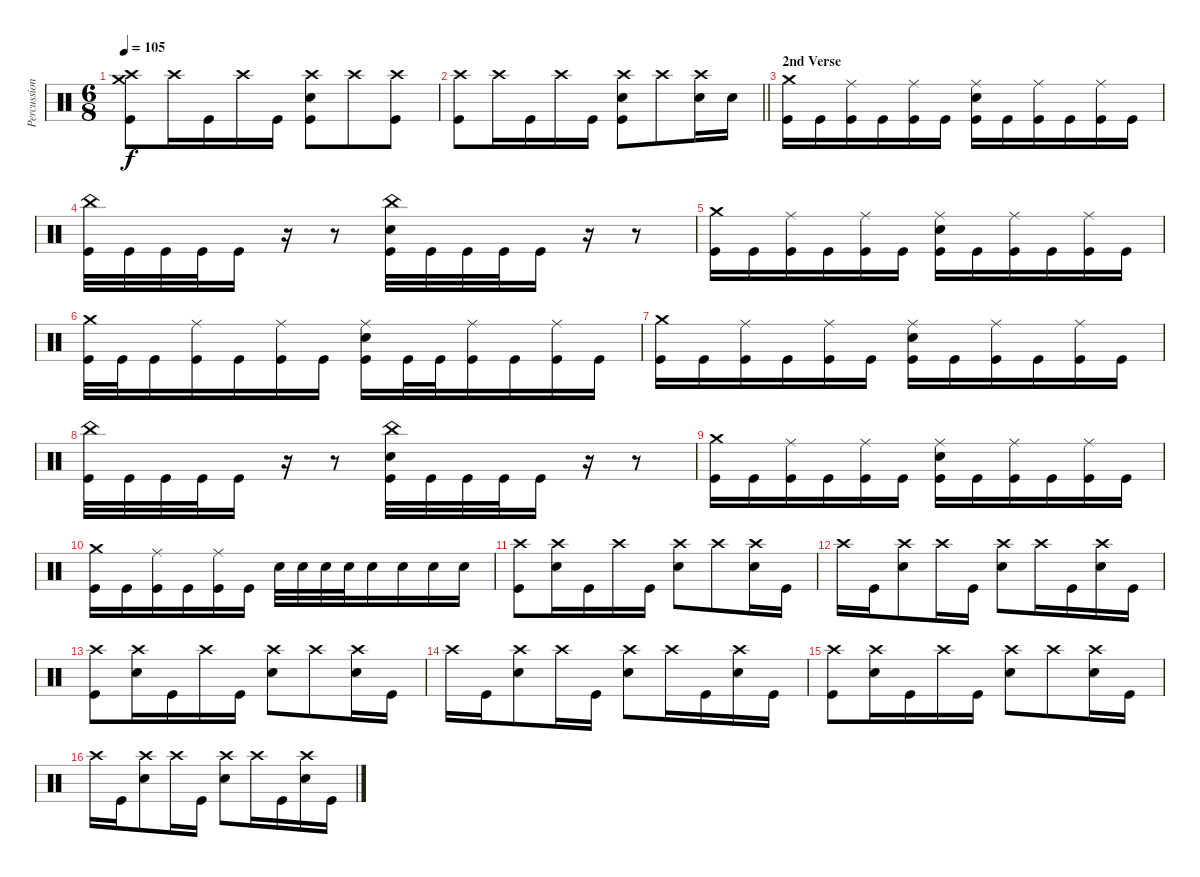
\track ("Percussion" "Percussion") {instrument percussion}
\staff {score}
\articulation defaults
\ts (6 8)
\tempo 105
\clef neutral
\ks c
("Crash medium (hit)" "Crash high (hit)" "Kick (hit)").8{dy f} "Crash high (hit)".16 "Kick (hit)".16 "Crash high (hit)".16 "Kick (hit)".16 ("Crash high (hit)" "Electric Snare (hit)" "Kick (hit)").8 "Crash high (hit)".8 ("Crash high (hit)" "Kick (hit)").8 |
\barLineRight lightlight
("Crash high (hit)" "Kick (hit)").8 "Crash high (hit)".16 "Kick (hit)".16 "Crash high (hit)".16 "Kick (hit)".16 ("Crash high (hit)" "Electric Snare (hit)" "Kick (hit)").8 "Crash high (hit)".8 ("Crash high (hit)" "Electric Snare (hit)").16 "Electric Snare (hit)".16 |
\section ("" "2nd Verse")
("Crash medium (hit)" "Kick (hit)").16 "Kick (hit)".16 ("Ride (middle)" "Kick (hit)").16 "Kick (hit)".16 ("Ride (middle)" "Kick (hit)").16 "Kick (hit)".16 ("Ride (middle)" "Electric Snare (hit)" "Kick (hit)").16 "Kick (hit)".16 ("Ride (middle)" "Kick (hit)").16 "Kick (hit)".16 ("Ride (middle)" "Kick (hit)").16 "Kick (hit)".16 |
("China (hit)" "Kick (hit)").32 "Kick (hit)".32 "Kick (hit)".32 "Kick (hit)".32 "Kick (hit)".16 r.16 r.8 ("China (hit)" "Electric Snare (hit)" "Kick (hit)").32 "Kick (hit)".32 "Kick (hit)".32 "Kick (hit)".32 "Kick (hit)".16 r.16 r.8 |
("Crash medium (hit)" "Kick (hit)").16 "Kick (hit)".16 ("Ride (middle)" "Kick (hit)").16 "Kick (hit)".16 ("Ride (middle)" "Kick (hit)").16 "Kick (hit)".16 ("Ride (middle)" "Electric Snare (hit)" "Kick (hit)").16 "Kick (hit)".16 ("Ride (middle)" "Kick (hit)").16 "Kick (hit)".16 ("Ride (middle)" "Kick (hit)").16 "Kick (hit)".16 |
("Crash medium (hit)" "Kick (hit)").32 "Kick (hit)".32 "Kick (hit)".16 ("Ride (middle)" "Kick (hit)").16 "Kick (hit)".16 ("Ride (middle)" "Kick (hit)").16 "Kick (hit)".16 ("Ride (middle)" "Electric Snare (hit)" "Kick (hit)").16 "Kick (hit)".32 "Kick (hit)".32 ("Ride (middle)" "Kick (hit)").16 "Kick (hit)".16 ("Ride (middle)" "Kick (hit)").16 "Kick (hit)".16 |
("Crash medium (hit)" "Kick (hit)").16 "Kick (hit)".16 ("Ride (middle)" "Kick (hit)").16 "Kick (hit)".16 ("Ride (middle)" "Kick (hit)").16 "Kick (hit)".16 ("Ride (middle)" "Electric Snare (hit)" "Kick (hit)").16 "Kick (hit)".16 ("Ride (middle)" "Kick (hit)").16 "Kick (hit)".16 ("Ride (middle)" "Kick (hit)").16 "Kick (hit)".16 |
("China (hit)" "Kick (hit)").32 "Kick (hit)".32 "Kick (hit)".32 "Kick (hit)".32 "Kick (hit)".16 r.16 r.8 ("China (hit)" "Electric Snare (hit)" "Kick (hit)").32 "Kick (hit)".32 "Kick (hit)".32 "Kick (hit)".32 "Kick (hit)".16 r.16 r.8 |
("Crash medium (hit)" "Kick (hit)").16 "Kick (hit)".16 ("Ride (middle)" "Kick (hit)").16 "Kick (hit)".16 ("Ride (middle)" "Kick (hit)").16 "Kick (hit)".16 ("Ride (middle)" "Electric Snare (hit)" "Kick (hit)").16 "Kick (hit)".16 ("Ride (middle)" "Kick (hit)").16 "Kick (hit)".16 ("Ride (middle)" "Kick (hit)").16 "Kick (hit)".16 |
("Crash medium (hit)" "Kick (hit)").16 "Kick (hit)".16 ("Ride (middle)" "Kick (hit)").16 "Kick (hit)".16 ("Ride (middle)" "Kick (hit)").16 "Kick (hit)".16 "Electric Snare (hit)".32 "Electric Snare (hit)".32 "Electric Snare (hit)".32 "Electric Snare (hit)".32 "Electric Snare (hit)".16 "Electric Snare (hit)".16 "Electric Snare (hit)".16 "Electric Snare (hit)".16 |
("Crash high (hit)" "Kick (hit)").8 ("Crash high (hit)" "Electric Snare (hit)").16 "Kick (hit)".16 "Crash high (hit)".16 "Kick (hit)".16 ("Crash high (hit)" "Electric Snare (hit)").8 "Crash high (hit)".8 ("Crash high (hit)" "Electric Snare (hit)").16 "Kick (hit)".16 |
"Crash high (hit)".16 "Kick (hit)".16 ("Crash high (hit)" "Electric Snare (hit)").8 "Crash high (hit)".16 "Kick (hit)".16 ("Crash high (hit)" "Electric Snare (hit)").8 "Crash high (hit)".16 "Kick (hit)".16 ("Crash high (hit)" "Electric Snare (hit)").16 "Kick (hit)".16 |
("Crash high (hit)" "Kick (hit)").8 ("Crash high (hit)" "Electric Snare (hit)").16 "Kick (hit)".16 "Crash high (hit)".16 "Kick (hit)".16 ("Crash high (hit)" "Electric Snare (hit)").8 "Crash high (hit)".8 ("Crash high (hit)" "Electric Snare (hit)").16 "Kick (hit)".16 |
"Crash high (hit)".16 "Kick (hit)".16 ("Crash high (hit)" "Electric Snare (hit)").8 "Crash high (hit)".16 "Kick (hit)".16 ("Crash high (hit)" "Electric Snare (hit)").8 "Crash high (hit)".16 "Kick (hit)".16 ("Crash high (hit)" "Electric Snare (hit)").16 "Kick (hit)".16 |
("Crash high (hit)" "Kick (hit)").8 ("Crash high (hit)" "Electric Snare (hit)").16 "Kick (hit)".16 "Crash high (hit)".16 "Kick (hit)".16 ("Crash high (hit)" "Electric Snare (hit)").8 "Crash high (hit)".8 ("Crash high (hit)" "Electric Snare (hit)").16 "Kick (hit)".16 |
"Crash high (hit)".16 "Kick (hit)".16 ("Crash high (hit)" "Electric Snare (hit)").8 "Crash high (hit)".16 "Kick (hit)".16 ("Crash high (hit)" "Electric Snare (hit)").8 "Crash high (hit)".16 "Kick (hit)".16 ("Crash high (hit)" "Electric Snare (hit)").16 "Kick (hit)".16
